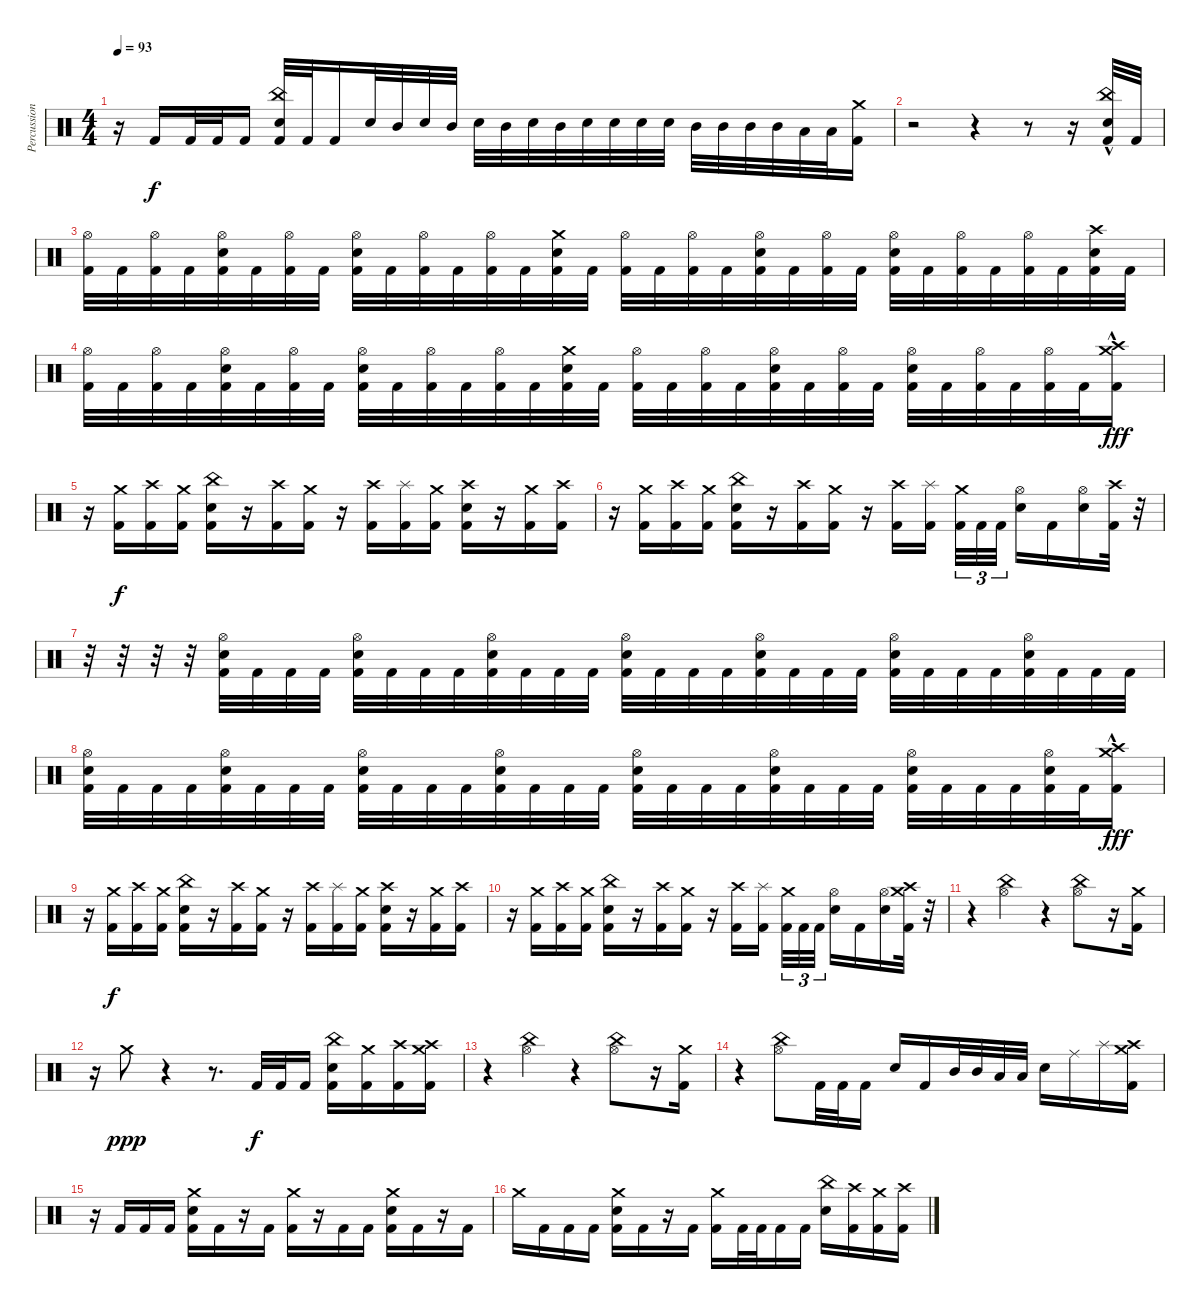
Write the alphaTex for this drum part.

\track ("Percussion" "Percussion") {instrument percussion}
\staff {score}
\articulation defaults
\ts (4 4)
\tempo 93
\clef neutral
\ks c
r.16{dy f} "Kick (hit) 2".16 "Kick (hit) 2".32 "Kick (hit) 2".32 "Kick (hit) 2".16 ("China (hit)" "Electric Snare (hit)" "Kick (hit) 2").32 "Kick (hit) 2".32 "Kick (hit) 2".16 "Electric Snare (hit)".32 "Mid Tom (hit)".32 "Electric Snare (hit)".32 "Mid Tom (hit)".32 "Electric Snare (hit)".32 "Mid Tom (hit)".32 "Electric Snare (hit)".32 "Mid Tom (hit)".32 "Electric Snare (hit)".32 "Electric Snare (hit)".32 "Electric Snare (hit)".32 "Electric Snare (hit)".32 "Mid Tom (hit)".32 "Mid Tom (hit)".32 "Mid Tom (hit)".32 "Mid Tom (hit)".32 "Low Tom (hit)".32 "Low Tom (hit)".32 ("Crash medium (hit)" "Kick (hit) 2").16 |
r.2 r.4 r.8 r.16 ("China (hit)"{hac} "Electric Snare (hit)"{hac} "Kick (hit) 2"{hac}).32 "Kick (hit) 2".32 |
("Hi-Hat (open)" "Kick (hit) 2").32 "Kick (hit) 2".32 ("Hi-Hat (open)" "Kick (hit) 2").32 "Kick (hit) 2".32 ("Hi-Hat (open)" "Electric Snare (hit)" "Kick (hit) 2").32 "Kick (hit) 2".32 ("Hi-Hat (open)" "Kick (hit) 2").32 "Kick (hit) 2".32 ("Hi-Hat (open)" "Electric Snare (hit)" "Kick (hit) 2").32 "Kick (hit) 2".32 ("Hi-Hat (open)" "Kick (hit) 2").32 "Kick (hit) 2".32 ("Hi-Hat (open)" "Kick (hit) 2").32 "Kick (hit) 2".32 ("Crash medium (hit)" "Electric Snare (hit)" "Kick (hit) 2").32 "Kick (hit) 2".32 ("Hi-Hat (open)" "Kick (hit) 2").32 "Kick (hit) 2".32 ("Hi-Hat (open)" "Kick (hit) 2").32 "Kick (hit) 2".32 ("Hi-Hat (open)" "Electric Snare (hit)" "Kick (hit) 2").32 "Kick (hit) 2".32 ("Hi-Hat (open)" "Kick (hit) 2").32 "Kick (hit) 2".32 ("Hi-Hat (open)" "Electric Snare (hit)" "Kick (hit) 2").32 "Kick (hit) 2".32 ("Hi-Hat (open)" "Kick (hit) 2").32 "Kick (hit) 2".32 ("Hi-Hat (open)" "Kick (hit) 2").32 "Kick (hit) 2".32 ("Crash high (hit)" "Electric Snare (hit)" "Kick (hit) 2").32 "Kick (hit) 2".32 |
("Hi-Hat (open)" "Kick (hit) 2").32 "Kick (hit) 2".32 ("Hi-Hat (open)" "Kick (hit) 2").32 "Kick (hit) 2".32 ("Hi-Hat (open)" "Electric Snare (hit)" "Kick (hit) 2").32 "Kick (hit) 2".32 ("Hi-Hat (open)" "Kick (hit) 2").32 "Kick (hit) 2".32 ("Hi-Hat (open)" "Electric Snare (hit)" "Kick (hit) 2").32 "Kick (hit) 2".32 ("Hi-Hat (open)" "Kick (hit) 2").32 "Kick (hit) 2".32 ("Hi-Hat (open)" "Kick (hit) 2").32 "Kick (hit) 2".32 ("Crash medium (hit)" "Electric Snare (hit)" "Kick (hit) 2").32 "Kick (hit) 2".32 ("Hi-Hat (open)" "Kick (hit) 2").32 "Kick (hit) 2".32 ("Hi-Hat (open)" "Kick (hit) 2").32 "Kick (hit) 2".32 ("Hi-Hat (open)" "Electric Snare (hit)" "Kick (hit) 2").32 "Kick (hit) 2".32 ("Hi-Hat (open)" "Kick (hit) 2").32 "Kick (hit) 2".32 ("Hi-Hat (open)" "Electric Snare (hit)" "Kick (hit) 2").32 "Kick (hit) 2".32 ("Hi-Hat (open)" "Kick (hit) 2").32 "Kick (hit) 2".32 ("Hi-Hat (open)" "Kick (hit) 2").32 "Kick (hit) 2".32 ("Crash medium (hit)"{hac} "Crash high (hit)"{hac} "Kick (hit) 2"{hac}).16{dy fff} |
r.16 ("Crash medium (hit)" "Kick (hit) 2").16{dy f} ("Crash high (hit)" "Kick (hit) 2").16 ("Crash medium (hit)" "Kick (hit) 2").16 ("China (hit)" "Electric Snare (hit)" "Kick (hit) 2").16 r.16 ("Crash high (hit)" "Kick (hit) 2").16 ("Crash medium (hit)" "Kick (hit) 2").16 r.16 ("Crash high (hit)" "Kick (hit) 2").16 ("Splash (hit)" "Kick (hit) 2").16 ("Crash medium (hit)" "Kick (hit) 2").16 ("Crash high (hit)" "Electric Snare (hit)" "Kick (hit) 2").16 r.16 ("Crash medium (hit)" "Kick (hit) 2").16 ("Crash high (hit)" "Kick (hit) 2").16 |
r.16 ("Crash medium (hit)" "Kick (hit) 2").16 ("Crash high (hit)" "Kick (hit) 2").16 ("Crash medium (hit)" "Kick (hit) 2").16 ("China (hit)" "Electric Snare (hit)" "Kick (hit) 2").16 r.16 ("Crash high (hit)" "Kick (hit) 2").16 ("Crash medium (hit)" "Kick (hit) 2").16 r.16 ("Crash high (hit)" "Kick (hit) 2").16 ("Splash (hit)" "Kick (hit) 2").16{beam splitsecondary} ("Crash medium (hit)" "Kick (hit) 2").32{tu (3 2)} "Kick (hit) 2".32{tu (3 2)} "Kick (hit) 2".32{tu (3 2)} ("Hi-Hat (open)" "Electric Snare (hit)").16 "Kick (hit) 2".16 ("Hi-Hat (open)" "Electric Snare (hit)").16 ("Crash high (hit)" "Kick (hit) 2").32 r.32 |
r.32 r.32 r.32 r.32 ("Hi-Hat (open)" "Electric Snare (hit)" "Kick (hit) 2").32 "Kick (hit) 2".32 "Kick (hit) 2".32 "Kick (hit) 2".32 ("Hi-Hat (open)" "Electric Snare (hit)" "Kick (hit) 2").32 "Kick (hit) 2".32 "Kick (hit) 2".32 "Kick (hit) 2".32 ("Hi-Hat (open)" "Electric Snare (hit)" "Kick (hit) 2").32 "Kick (hit) 2".32 "Kick (hit) 2".32 "Kick (hit) 2".32 ("Hi-Hat (open)" "Electric Snare (hit)" "Kick (hit) 2").32 "Kick (hit) 2".32 "Kick (hit) 2".32 "Kick (hit) 2".32 ("Hi-Hat (open)" "Electric Snare (hit)" "Kick (hit) 2").32 "Kick (hit) 2".32 "Kick (hit) 2".32 "Kick (hit) 2".32 ("Hi-Hat (open)" "Electric Snare (hit)" "Kick (hit) 2").32 "Kick (hit) 2".32 "Kick (hit) 2".32 "Kick (hit) 2".32 ("Hi-Hat (open)" "Electric Snare (hit)" "Kick (hit) 2").32 "Kick (hit) 2".32 "Kick (hit) 2".32 "Kick (hit) 2".32 |
("Hi-Hat (open)" "Electric Snare (hit)" "Kick (hit) 2").32 "Kick (hit) 2".32 "Kick (hit) 2".32 "Kick (hit) 2".32 ("Hi-Hat (open)" "Electric Snare (hit)" "Kick (hit) 2").32 "Kick (hit) 2".32 "Kick (hit) 2".32 "Kick (hit) 2".32 ("Hi-Hat (open)" "Electric Snare (hit)" "Kick (hit) 2").32 "Kick (hit) 2".32 "Kick (hit) 2".32 "Kick (hit) 2".32 ("Hi-Hat (open)" "Electric Snare (hit)" "Kick (hit) 2").32 "Kick (hit) 2".32 "Kick (hit) 2".32 "Kick (hit) 2".32 ("Hi-Hat (open)" "Electric Snare (hit)" "Kick (hit) 2").32 "Kick (hit) 2".32 "Kick (hit) 2".32 "Kick (hit) 2".32 ("Hi-Hat (open)" "Electric Snare (hit)" "Kick (hit) 2").32 "Kick (hit) 2".32 "Kick (hit) 2".32 "Kick (hit) 2".32 ("Hi-Hat (open)" "Electric Snare (hit)" "Kick (hit) 2").32 "Kick (hit) 2".32 "Kick (hit) 2".32 "Kick (hit) 2".32 ("Hi-Hat (open)" "Electric Snare (hit)" "Kick (hit) 2").32 "Kick (hit) 2".32 ("Crash medium (hit)"{hac} "Crash high (hit)"{hac} "Kick (hit) 2"{hac}).16{dy fff} |
r.16 ("Crash medium (hit)" "Kick (hit) 2").16{dy f} ("Crash high (hit)" "Kick (hit) 2").16 ("Crash medium (hit)" "Kick (hit) 2").16 ("China (hit)" "Electric Snare (hit)" "Kick (hit) 2").16 r.16 ("Crash high (hit)" "Kick (hit) 2").16 ("Crash medium (hit)" "Kick (hit) 2").16 r.16 ("Crash high (hit)" "Kick (hit) 2").16 ("Splash (hit)" "Kick (hit) 2").16 ("Crash medium (hit)" "Kick (hit) 2").16 ("Crash high (hit)" "Electric Snare (hit)" "Kick (hit) 2").16 r.16 ("Crash medium (hit)" "Kick (hit) 2").16 ("Crash high (hit)" "Kick (hit) 2").16 |
r.16 ("Crash medium (hit)" "Kick (hit) 2").16 ("Crash high (hit)" "Kick (hit) 2").16 ("Crash medium (hit)" "Kick (hit) 2").16 ("China (hit)" "Electric Snare (hit)" "Kick (hit) 2").16 r.16 ("Crash high (hit)" "Kick (hit) 2").16 ("Crash medium (hit)" "Kick (hit) 2").16 r.16 ("Crash high (hit)" "Kick (hit) 2").16 ("Splash (hit)" "Kick (hit) 2").16{beam splitsecondary} ("Crash medium (hit)" "Kick (hit) 2").32{tu (3 2)} "Kick (hit) 2".32{tu (3 2)} "Kick (hit) 2".32{tu (3 2)} ("Hi-Hat (open)" "Electric Snare (hit)").16 "Kick (hit) 2".16 ("Hi-Hat (open)" "Electric Snare (hit)").16 ("Crash high (hit)" "Crash medium (hit)" "Kick (hit) 2").32 r.32 |
r.4 ("China (hit)" "Hi-Hat (open)").4 r.4 ("China (hit)" "Hi-Hat (open)").8 r.16 ("Crash medium (hit)" "Kick (hit) 2").16 |
r.16 "Crash medium (hit)".8{dy ppp} r.4 r.8{d} "Kick (hit) 2".32{dy f} "Kick (hit) 2".32 "Kick (hit) 2".16 ("China (hit)" "Electric Snare (hit)" "Kick (hit) 2").16 ("Crash medium (hit)" "Kick (hit) 2").16 ("Crash high (hit)" "Kick (hit) 2").16 ("Crash medium (hit)" "Crash high (hit)" "Kick (hit) 2").16 |
r.4 ("China (hit)" "Hi-Hat (open)").4 r.4 ("China (hit)" "Hi-Hat (open)").8 r.16 ("Crash medium (hit)" "Kick (hit) 2").16 |
r.4 ("China (hit)" "Hi-Hat (open)").8 "Kick (hit) 2".32 "Kick (hit) 2".32 "Kick (hit) 2".16 "Electric Snare (hit)".16 "Kick (hit) 2".16 "Mid Tom (hit)".32 "Mid Tom (hit)".32 "Low Tom (hit)".32 "Low Tom (hit)".32 "Electric Snare (hit)".16 "Ride (middle)".16 "Splash (hit)".16 ("Crash medium (hit)" "Crash high (hit)" "Kick (hit) 2").16 |
r.16 "Kick (hit) 2".16 "Kick (hit) 2".16 "Kick (hit) 2".16 ("Crash medium (hit)" "Electric Snare (hit)" "Kick (hit) 2").16 "Kick (hit) 2".16 r.16 "Kick (hit) 2".16 ("Crash medium (hit)" "Kick (hit) 2").16 r.16 "Kick (hit) 2".16 "Kick (hit) 2".16 ("Crash medium (hit)" "Electric Snare (hit)" "Kick (hit) 2").16 "Kick (hit) 2".16 r.16 "Kick (hit) 2".16 |
"Crash medium (hit)".16 "Kick (hit) 2".16 "Kick (hit) 2".16 "Kick (hit) 2".16 ("Crash medium (hit)" "Electric Snare (hit)" "Kick (hit) 2").16 "Kick (hit) 2".16 r.16 "Kick (hit) 2".16 ("Crash medium (hit)" "Kick (hit) 2").16 "Kick (hit) 2".32 "Kick (hit) 2".32 "Kick (hit) 2".16 "Kick (hit) 2".16 ("China (hit)" "Electric Snare (hit)").16 ("Crash high (hit)" "Kick (hit) 2").16 ("Crash medium (hit)" "Kick (hit) 2").16 ("Crash high (hit)" "Kick (hit) 2").16
